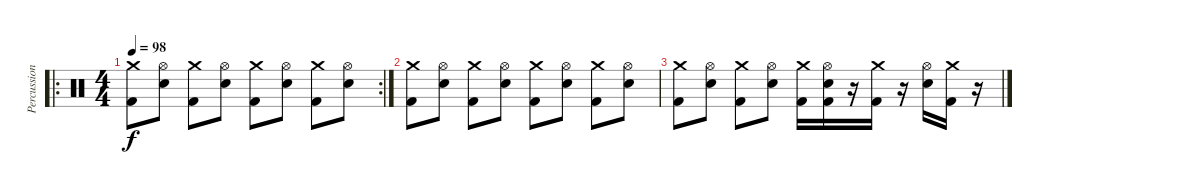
\track ("Percussion" "Percussion") {instrument percussion}
\staff {score}
\articulation defaults
\ro
\rc 2
\ts (4 4)
\tempo 98
\clef neutral
\ks c
("Crash medium (hit)" "Kick (hit) 2").8{dy f} ("Hi-Hat (open)" "Electric Snare (hit)").8 ("Crash medium (hit)" "Kick (hit) 2").8 ("Hi-Hat (open)" "Electric Snare (hit)").8 ("Crash medium (hit)" "Kick (hit) 2").8 ("Hi-Hat (open)" "Electric Snare (hit)").8 ("Crash medium (hit)" "Kick (hit) 2").8 ("Hi-Hat (open)" "Electric Snare (hit)").8 |
("Crash medium (hit)" "Kick (hit) 2").8 ("Hi-Hat (open)" "Electric Snare (hit)").8 ("Crash medium (hit)" "Kick (hit) 2").8 ("Hi-Hat (open)" "Electric Snare (hit)").8 ("Crash medium (hit)" "Kick (hit) 2").8 ("Hi-Hat (open)" "Electric Snare (hit)").8 ("Crash medium (hit)" "Kick (hit) 2").8 ("Hi-Hat (open)" "Electric Snare (hit)").8 |
("Crash medium (hit)" "Kick (hit) 2").8 ("Hi-Hat (open)" "Electric Snare (hit)").8 ("Crash medium (hit)" "Kick (hit) 2").8 ("Hi-Hat (open)" "Electric Snare (hit)").8 ("Crash medium (hit)" "Kick (hit) 2").16 ("Hi-Hat (open)" "Electric Snare (hit)" "Kick (hit) 2").16 r.16 ("Crash medium (hit)" "Kick (hit) 2").16 r.16 ("Hi-Hat (open)" "Electric Snare (hit)").16 ("Crash medium (hit)" "Kick (hit) 2").16 r.16
